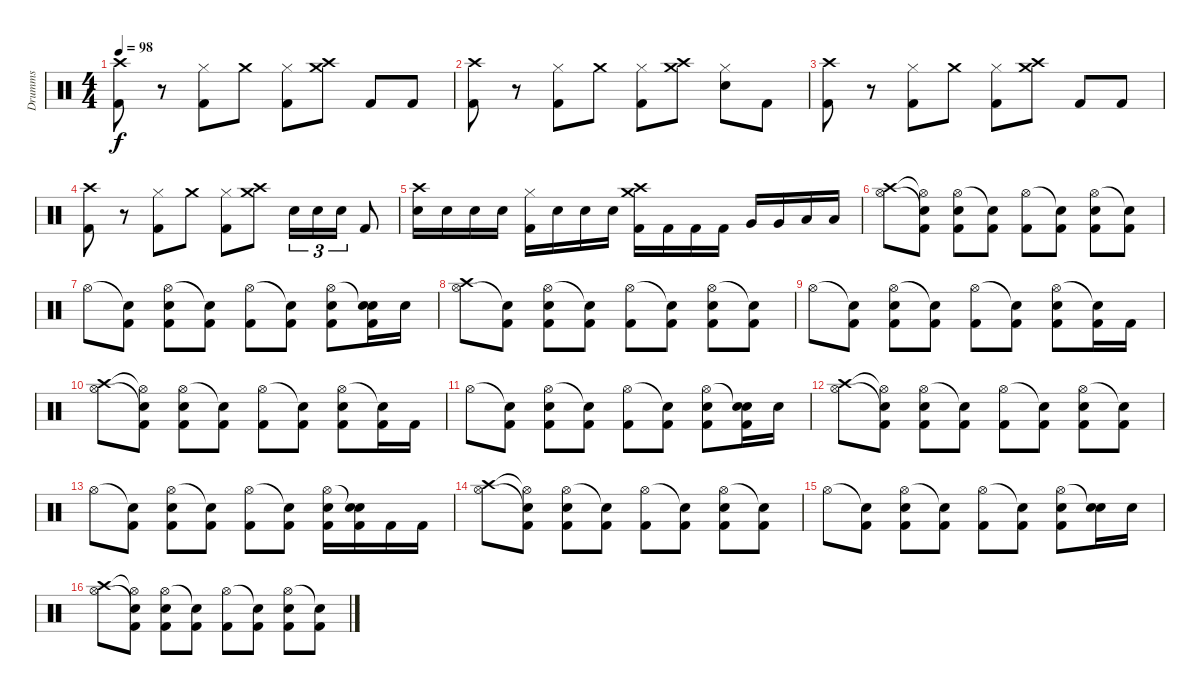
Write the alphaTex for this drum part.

\track ("Drumms" "Drumms") {instrument percussion}
\staff {score}
\articulation defaults
\ts (4 4)
\tempo 98
\clef neutral
\ks c
("Crash high (hit)" "Kick (hit) 2").8{dy f} r.8 ("Hi-Hat (closed)" "Kick (hit) 2").8 "Crash medium (hit)".8 ("Hi-Hat (closed)" "Kick (hit) 2").8 ("Crash medium (hit)" "Crash high (hit)").8 "Kick (hit) 2".8 "Kick (hit) 2".8 |
("Crash high (hit)" "Kick (hit) 2").8 r.8 ("Hi-Hat (closed)" "Kick (hit) 2").8 "Crash medium (hit)".8 ("Hi-Hat (closed)" "Kick (hit) 2").8 ("Crash medium (hit)" "Crash high (hit)").8 ("Electric Snare (hit)" "Hi-Hat (closed)").8 "Kick (hit) 2".8 |
("Crash high (hit)" "Kick (hit) 2").8 r.8 ("Hi-Hat (closed)" "Kick (hit) 2").8 "Crash medium (hit)".8 ("Hi-Hat (closed)" "Kick (hit) 2").8 ("Crash medium (hit)" "Crash high (hit)").8 "Kick (hit) 2".8 "Kick (hit) 2".8 |
("Crash high (hit)" "Kick (hit) 2").8 r.8 ("Hi-Hat (closed)" "Kick (hit) 2").8 "Crash medium (hit)".8 ("Hi-Hat (closed)" "Kick (hit) 2").8 ("Crash medium (hit)" "Crash high (hit)").8 "Electric Snare (hit)".16{tu (3 2)} "Electric Snare (hit)".16{tu (3 2)} "Electric Snare (hit)".16{tu (3 2)} "Kick (hit) 2".8 |
("Crash high (hit)" "Electric Snare (hit)").16 "Electric Snare (hit)".16 "Electric Snare (hit)".16 "Electric Snare (hit)".16 ("Hi-Hat (closed)" "Kick (hit) 2").16 "Snare (hit) 2".16 "Snare (hit) 2".16 "Snare (hit) 2".16 ("Crash high (hit)" "Crash medium (hit)" "Kick (hit) 2").16 "Kick (hit) 2".16 "Kick (hit) 2".16 "Kick (hit) 2".16 "Very Low Tom (hit)".16 "Very Low Tom (hit)".16 "Low Tom (hit)".16 "Low Tom (hit)".16 |
("Hi-Hat (open)" "Crash high (hit)").8{volume 13} ("Snare (hit)"{t} "Hi-Hat (open)"{t} "Kick (hit) 2").8 ("Hi-Hat (open)" "Electric Snare (hit)" "Kick (hit) 2").8 ("Snare (hit)"{t} "Kick (hit) 2").8 ("Hi-Hat (open)" "Kick (hit) 2").8 ("Snare (hit)"{t} "Kick (hit) 2").8 ("Hi-Hat (open)" "Electric Snare (hit)" "Kick (hit) 2").8 ("Snare (hit)"{t} "Kick (hit) 2").8 |
"Hi-Hat (open)".8{volume 13} ("Snare (hit)"{t} "Kick (hit) 2").8 ("Hi-Hat (open)" "Electric Snare (hit)" "Kick (hit) 2").8 ("Snare (hit)"{t} "Kick (hit) 2").8 ("Hi-Hat (open)" "Kick (hit) 2").8 ("Snare (hit)"{t} "Kick (hit) 2").8 ("Hi-Hat (open)" "Electric Snare (hit)" "Kick (hit) 2").8 ("Snare (hit)"{t} "Electric Snare (hit)" "Kick (hit) 2").16 "Electric Snare (hit)".16 |
("Hi-Hat (open)" "Crash high (hit)").8{volume 13} ("Snare (hit)"{t} "Kick (hit) 2").8 ("Hi-Hat (open)" "Electric Snare (hit)" "Kick (hit) 2").8 ("Snare (hit)"{t} "Kick (hit) 2").8 ("Hi-Hat (open)" "Kick (hit) 2").8 ("Snare (hit)"{t} "Kick (hit) 2").8 ("Hi-Hat (open)" "Electric Snare (hit)" "Kick (hit) 2").8 ("Snare (hit)"{t} "Kick (hit) 2").8 |
"Hi-Hat (open)".8{volume 13} ("Snare (hit)"{t} "Kick (hit) 2").8 ("Hi-Hat (open)" "Electric Snare (hit)" "Kick (hit) 2").8 ("Snare (hit)"{t} "Kick (hit) 2").8 ("Hi-Hat (open)" "Kick (hit) 2").8 ("Snare (hit)"{t} "Kick (hit) 2").8 ("Hi-Hat (open)" "Electric Snare (hit)" "Kick (hit) 2").8 ("Snare (hit)"{t} "Kick (hit) 2").16 "Kick (hit) 2".16 |
("Hi-Hat (open)" "Crash high (hit)").8{volume 13} ("Snare (hit)"{t} "Hi-Hat (open)"{t} "Kick (hit) 2").8 ("Hi-Hat (open)" "Electric Snare (hit)" "Kick (hit) 2").8 ("Snare (hit)"{t} "Kick (hit) 2").8 ("Hi-Hat (open)" "Kick (hit) 2").8 ("Snare (hit)"{t} "Kick (hit) 2").8 ("Hi-Hat (open)" "Electric Snare (hit)" "Kick (hit) 2").8 ("Snare (hit)"{t} "Kick (hit) 2").16 "Kick (hit) 2".16 |
"Hi-Hat (open)".8{volume 13} ("Snare (hit)"{t} "Kick (hit) 2").8 ("Hi-Hat (open)" "Electric Snare (hit)" "Kick (hit) 2").8 ("Snare (hit)"{t} "Kick (hit) 2").8 ("Hi-Hat (open)" "Kick (hit) 2").8 ("Snare (hit)"{t} "Kick (hit) 2").8 ("Hi-Hat (open)" "Electric Snare (hit)" "Kick (hit) 2").8 ("Snare (hit)"{t} "Electric Snare (hit)" "Kick (hit) 2").16 "Electric Snare (hit)".16 |
("Hi-Hat (open)" "Crash high (hit)").8{volume 13} ("Snare (hit)"{t} "Hi-Hat (open)"{t} "Kick (hit) 2").8 ("Hi-Hat (open)" "Electric Snare (hit)" "Kick (hit) 2").8 ("Snare (hit)"{t} "Kick (hit) 2").8 ("Hi-Hat (open)" "Kick (hit) 2").8 ("Snare (hit)"{t} "Kick (hit) 2").8 ("Hi-Hat (open)" "Electric Snare (hit)" "Kick (hit) 2").8 ("Snare (hit)"{t} "Kick (hit) 2").8 |
"Hi-Hat (open)".8{volume 13} ("Snare (hit)"{t} "Kick (hit) 2").8 ("Hi-Hat (open)" "Electric Snare (hit)" "Kick (hit) 2").8 ("Snare (hit)"{t} "Kick (hit) 2").8 ("Hi-Hat (open)" "Kick (hit) 2").8 ("Snare (hit)"{t} "Kick (hit) 2").8 ("Hi-Hat (open)" "Electric Snare (hit)" "Kick (hit) 2").16 ("Snare (hit)"{t} "Electric Snare (hit)" "Kick (hit) 2").16 "Kick (hit) 2".16 "Kick (hit) 2".16 |
("Hi-Hat (open)" "Crash high (hit)").8{volume 13} ("Snare (hit)"{t} "Hi-Hat (open)"{t} "Kick (hit) 2").8 ("Hi-Hat (open)" "Electric Snare (hit)" "Kick (hit) 2").8 ("Snare (hit)"{t} "Kick (hit) 2").8 ("Hi-Hat (open)" "Kick (hit) 2").8 ("Snare (hit)"{t} "Kick (hit) 2").8 ("Hi-Hat (open)" "Electric Snare (hit)" "Kick (hit) 2").8 ("Snare (hit)"{t} "Kick (hit) 2").8 |
"Hi-Hat (open)".8{volume 13} ("Snare (hit)"{t} "Kick (hit) 2").8 ("Hi-Hat (open)" "Electric Snare (hit)" "Kick (hit) 2").8 ("Snare (hit)"{t} "Kick (hit) 2").8 ("Hi-Hat (open)" "Kick (hit) 2").8 ("Snare (hit)"{t} "Kick (hit) 2").8 ("Hi-Hat (open)" "Electric Snare (hit)" "Kick (hit) 2").8 ("Snare (hit)"{t} "Electric Snare (hit)").16 "Electric Snare (hit)".16 |
("Hi-Hat (open)" "Crash high (hit)").8{volume 13} ("Snare (hit)"{t} "Hi-Hat (open)"{t} "Kick (hit) 2").8 ("Hi-Hat (open)" "Electric Snare (hit)" "Kick (hit) 2").8 ("Snare (hit)"{t} "Kick (hit) 2").8 ("Hi-Hat (open)" "Kick (hit) 2").8 ("Snare (hit)"{t} "Kick (hit) 2").8 ("Hi-Hat (open)" "Electric Snare (hit)" "Kick (hit) 2").8 ("Snare (hit)"{t} "Kick (hit) 2").8
